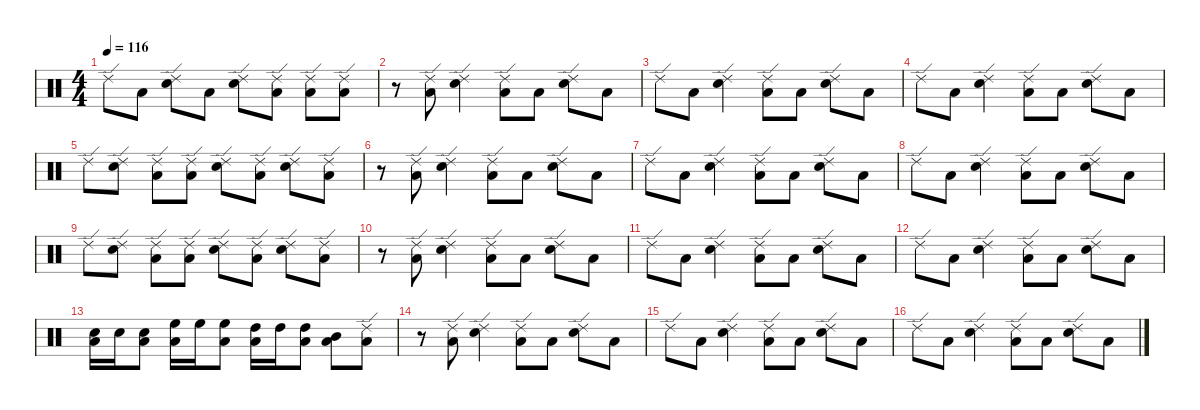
\defaultSystemsLayout 4
\hideDynamics
\bracketExtendMode nobrackets
\singleTrackTrackNamePolicy hidden
\multiTrackTrackNamePolicy hidden
\otherSystemsTrackNameOrientation horizontal
\track ("Drums" "drm.") {instrument percussion}
\staff {score}
\articulation defaults
\ts (4 4)
\tempo 116
\clef neutral
\ks c "Ride (edge) 2".8{dy f beam Down} "Low Floor Tom (hit)".8{beam Down}
("Snare (hit) 2" "Ride (edge) 2").8{beam Down} "Low Floor Tom (hit)".8{beam Down} ("Snare (hit) 2" "Ride (edge) 2").8{beam Down} ("Low Floor Tom (hit)" "Ride (edge) 2").8{beam Down} ("Low Floor Tom (hit)" "Ride (edge) 2").8{beam Down} ("Low Floor Tom (hit)" "Ride (edge) 2").8{beam Down} |
r.8{beam Down} ("Low Floor Tom (hit)" "Ride (edge) 2").8{beam Down} ("Snare (hit) 2" "Ride (edge) 2").4{beam Down} ("Low Floor Tom (hit)" "Ride (edge) 2").8{beam Down} "Low Floor Tom (hit)".8{beam Down} ("Snare (hit) 2" "Ride (edge) 2").8{beam Down} "Low Floor Tom (hit)".8{beam Down} |
"Ride (edge) 2".8{beam Down} "Low Floor Tom (hit)".8{beam Down} ("Snare (hit) 2" "Ride (edge) 2").4{beam Down} ("Low Floor Tom (hit)" "Ride (edge) 2").8{beam Down} "Low Floor Tom (hit)".8{beam Down} ("Snare (hit) 2" "Ride (edge) 2").8{beam Down} "Low Floor Tom (hit)".8{beam Down} |
"Ride (edge) 2".8{beam Down} "Low Floor Tom (hit)".8{beam Down} ("Snare (hit) 2" "Ride (edge) 2").4{beam Down} ("Low Floor Tom (hit)" "Ride (edge) 2").8{beam Down} "Low Floor Tom (hit)".8{beam Down} ("Snare (hit) 2" "Ride (edge) 2").8{beam Down} "Low Floor Tom (hit)".8{beam Down} |
"Ride (edge) 2".8{beam Down} ("Snare (hit) 2" "Ride (edge) 2").8{beam Down} ("Low Floor Tom (hit)" "Ride (edge) 2").8{beam Down} ("Low Floor Tom (hit)" "Ride (edge) 2").8{beam Down} ("Snare (hit) 2" "Ride (edge) 2").8{beam Down} ("Low Floor Tom (hit)" "Ride (edge) 2").8{beam Down} ("Snare (hit) 2" "Ride (edge) 2").8{beam Down} ("Low Floor Tom (hit)" "Ride (edge) 2").8{beam Down} |
r.8{beam Down} ("Low Floor Tom (hit)" "Ride (edge) 2").8{beam Down} ("Snare (hit) 2" "Ride (edge) 2").4{beam Down} ("Low Floor Tom (hit)" "Ride (edge) 2").8{beam Down} "Low Floor Tom (hit)".8{beam Down} ("Snare (hit) 2" "Ride (edge) 2").8{beam Down} "Low Floor Tom (hit)".8{beam Down} |
"Ride (edge) 2".8{beam Down} "Low Floor Tom (hit)".8{beam Down} ("Snare (hit) 2" "Ride (edge) 2").4{beam Down} ("Low Floor Tom (hit)" "Ride (edge) 2").8{beam Down} "Low Floor Tom (hit)".8{beam Down} ("Snare (hit) 2" "Ride (edge) 2").8{beam Down} "Low Floor Tom (hit)".8{beam Down} |
"Ride (edge) 2".8{beam Down} "Low Floor Tom (hit)".8{beam Down} ("Snare (hit) 2" "Ride (edge) 2").4{beam Down} ("Low Floor Tom (hit)" "Ride (edge) 2").8{beam Down} "Low Floor Tom (hit)".8{beam Down} ("Snare (hit) 2" "Ride (edge) 2").8{beam Down} "Low Floor Tom (hit)".8{beam Down} |
"Ride (edge) 2".8{beam Down} ("Snare (hit) 2" "Ride (edge) 2").8{beam Down} ("Low Floor Tom (hit)" "Ride (edge) 2").8{beam Down} ("Low Floor Tom (hit)" "Ride (edge) 2").8{beam Down} ("Snare (hit) 2" "Ride (edge) 2").8{beam Down} ("Low Floor Tom (hit)" "Ride (edge) 2").8{beam Down} ("Snare (hit) 2" "Ride (edge) 2").8{beam Down} ("Low Floor Tom (hit)" "Ride (edge) 2").8{beam Down} |
r.8{beam Down} ("Low Floor Tom (hit)" "Ride (edge) 2").8{beam Down} ("Snare (hit) 2" "Ride (edge) 2").4{beam Down} ("Low Floor Tom (hit)" "Ride (edge) 2").8{beam Down} "Low Floor Tom (hit)".8{beam Down} ("Snare (hit) 2" "Ride (edge) 2").8{beam Down} "Low Floor Tom (hit)".8{beam Down} |
"Ride (edge) 2".8{beam Down} "Low Floor Tom (hit)".8{beam Down} ("Snare (hit) 2" "Ride (edge) 2").4{beam Down} ("Low Floor Tom (hit)" "Ride (edge) 2").8{beam Down} "Low Floor Tom (hit)".8{beam Down} ("Snare (hit) 2" "Ride (edge) 2").8{beam Down} "Low Floor Tom (hit)".8{beam Down} |
"Ride (edge) 2".8{beam Down} "Low Floor Tom (hit)".8{beam Down} ("Snare (hit) 2" "Ride (edge) 2").4{beam Down} ("Low Floor Tom (hit)" "Ride (edge) 2").8{beam Down} "Low Floor Tom (hit)".8{beam Down} ("Snare (hit) 2" "Ride (edge) 2").8{beam Down} "Low Floor Tom (hit)".8{beam Down} |
("Snare (hit) 2" "Low Floor Tom (hit)").16{beam Down} "Snare (hit) 2".16{beam Down} ("Snare (hit) 2" "Low Floor Tom (hit)").8{beam Down} ("Low Floor Tom (hit)" "High Floor Tom (hit)").16{beam Down} "High Floor Tom (hit)".16{beam Down} ("Low Floor Tom (hit)" "High Floor Tom (hit)").8{beam Down} ("Low Floor Tom (hit)" "High Tom (hit)").16{beam Down} "High Tom (hit)".16{beam Down} ("Low Floor Tom (hit)" "High Tom (hit)").8{beam Down} ("Low Floor Tom (hit)" "Mid Tom (hit)").8{beam Down} ("Low Floor Tom (hit)" "Ride (edge) 2").8{beam Down} |
r.8{beam Down} ("Low Floor Tom (hit)" "Ride (edge) 2").8{beam Down} ("Snare (hit) 2" "Ride (edge) 2").4{beam Down} ("Low Floor Tom (hit)" "Ride (edge) 2").8{beam Down} "Low Floor Tom (hit)".8{beam Down} ("Snare (hit) 2" "Ride (edge) 2").8{beam Down} "Low Floor Tom (hit)".8{beam Down} |
"Ride (edge) 2".8{beam Down} "Low Floor Tom (hit)".8{beam Down} ("Snare (hit) 2" "Ride (edge) 2").4{beam Down} ("Low Floor Tom (hit)" "Ride (edge) 2").8{beam Down} "Low Floor Tom (hit)".8{beam Down} ("Snare (hit) 2" "Ride (edge) 2").8{beam Down} "Low Floor Tom (hit)".8{beam Down} |
"Ride (edge) 2".8{beam Down} "Low Floor Tom (hit)".8{beam Down} ("Snare (hit) 2" "Ride (edge) 2").4{beam Down} ("Low Floor Tom (hit)" "Ride (edge) 2").8{beam Down} "Low Floor Tom (hit)".8{beam Down} ("Snare (hit) 2" "Ride (edge) 2").8{beam Down} "Low Floor Tom (hit)".8{beam Down}
